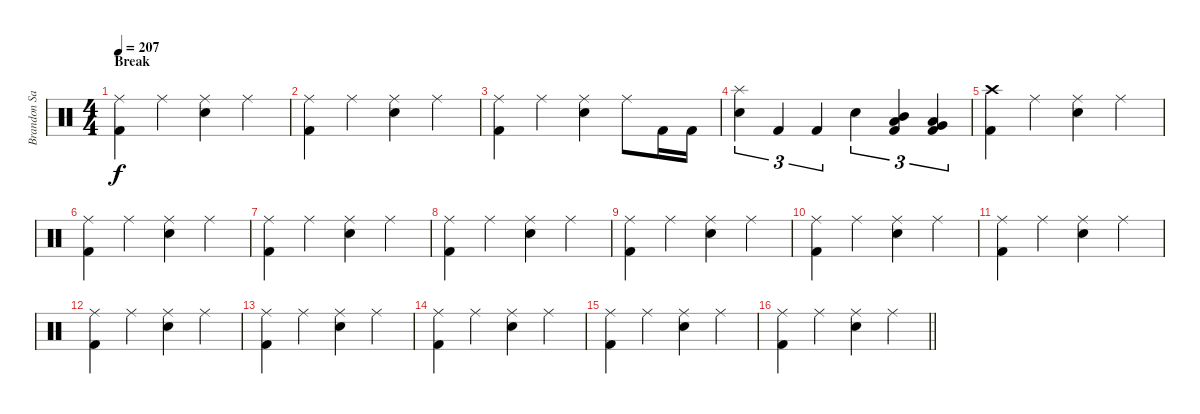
\track ("Brandon Saller" "Brandon Sa") {instrument percussion}
\staff {score}
\articulation defaults
\ts (4 4)
\section ("" "Break")
\tempo 207
\clef neutral
\ks c
("Ride (middle)" "Kick (hit) 2").4{dy f} "Ride (middle)".4 ("Ride (middle)" "Electric Snare (hit)").4 "Ride (middle)".4 |
("Ride (middle)" "Kick (hit) 2").4 "Ride (middle)".4 ("Ride (middle)" "Electric Snare (hit)").4 "Ride (middle)".4 |
("Ride (middle)" "Kick (hit) 2").4 "Ride (middle)".4 ("Ride (middle)" "Electric Snare (hit)").4 "Ride (middle)".8 "Kick (hit) 2".16 "Kick (hit) 2".16 |
("Splash (hit)" "Snare (hit) 2").4{tu (3 2)} "Kick (hit) 2".4{tu (3 2)} "Kick (hit) 2".4{tu (3 2)} "Snare (hit) 2".4{tu (3 2)} ("Mid Tom (hit)" "Low Tom (hit)" "Kick (hit) 2").4{tu (3 2)} ("Low Tom (hit)" "Very Low Tom (hit)" "Kick (hit) 2").4{tu (3 2)} |
("Crash high (hit)" "Kick (hit) 2").4 "Ride (middle)".4 ("Ride (middle)" "Electric Snare (hit)").4 "Ride (middle)".4 |
("Ride (middle)" "Kick (hit) 2").4 "Ride (middle)".4 ("Ride (middle)" "Electric Snare (hit)").4 "Ride (middle)".4 |
("Ride (middle)" "Kick (hit) 2").4 "Ride (middle)".4 ("Ride (middle)" "Electric Snare (hit)").4 "Ride (middle)".4 |
("Ride (middle)" "Kick (hit) 2").4 "Ride (middle)".4 ("Ride (middle)" "Electric Snare (hit)").4 "Ride (middle)".4 |
("Ride (middle)" "Kick (hit) 2").4 "Ride (middle)".4 ("Ride (middle)" "Electric Snare (hit)").4 "Ride (middle)".4 |
("Ride (middle)" "Kick (hit) 2").4 "Ride (middle)".4 ("Ride (middle)" "Electric Snare (hit)").4 "Ride (middle)".4 |
("Ride (middle)" "Kick (hit) 2").4 "Ride (middle)".4 ("Ride (middle)" "Electric Snare (hit)").4 "Ride (middle)".4 |
("Ride (middle)" "Kick (hit) 2").4 "Ride (middle)".4 ("Ride (middle)" "Electric Snare (hit)").4 "Ride (middle)".4 |
("Ride (middle)" "Kick (hit) 2").4 "Ride (middle)".4 ("Ride (middle)" "Electric Snare (hit)").4 "Ride (middle)".4 |
("Ride (middle)" "Kick (hit) 2").4 "Ride (middle)".4 ("Ride (middle)" "Electric Snare (hit)").4 "Ride (middle)".4 |
("Ride (middle)" "Kick (hit) 2").4 "Ride (middle)".4 ("Ride (middle)" "Electric Snare (hit)").4 "Ride (middle)".4 |
\barLineRight lightlight
("Ride (middle)" "Kick (hit) 2").4 "Ride (middle)".4 ("Ride (middle)" "Electric Snare (hit)").4 "Ride (middle)".4
